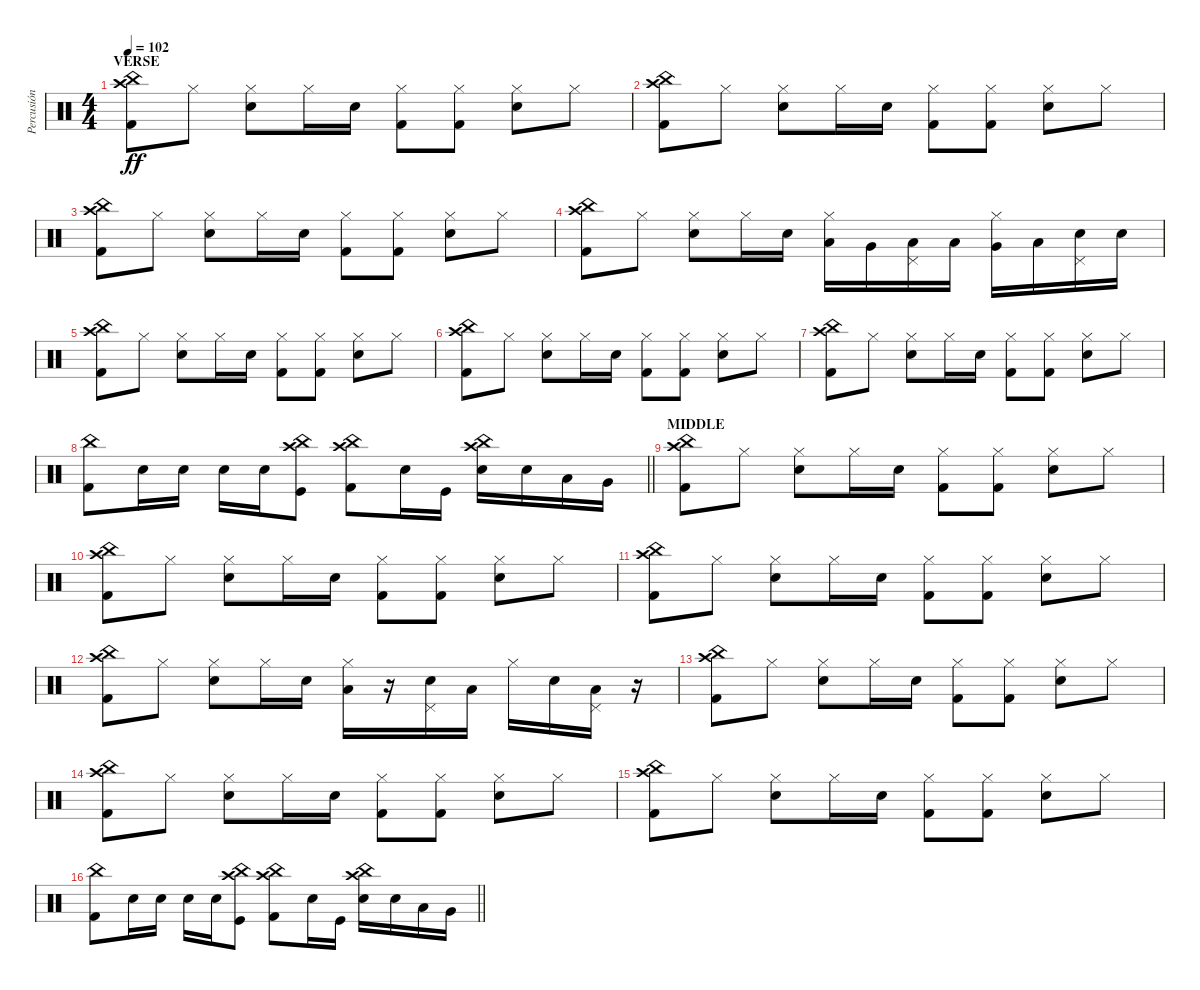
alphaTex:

\track ("Percusión" "Percusión") {instrument percussion}
\staff {score}
\articulation defaults
\ts (4 4)
\section ("" "VERSE")
\tempo 102
\clef neutral
\ks c
("Kick (hit) 2" "China (hit)" "Crash high (hit)").8{dy ff} "Hi-Hat (closed)".8 ("Electric Snare (hit)" "Hi-Hat (closed)").8 "Hi-Hat (closed)".16 "Electric Snare (hit)".16 ("Kick (hit) 2" "Hi-Hat (closed)").8 ("Kick (hit) 2" "Hi-Hat (closed)").8 ("Electric Snare (hit)" "Hi-Hat (closed)").8 "Hi-Hat (closed)".8 |
("Kick (hit) 2" "China (hit)" "Crash high (hit)").8 "Hi-Hat (closed)".8 ("Electric Snare (hit)" "Hi-Hat (closed)").8 "Hi-Hat (closed)".16 "Electric Snare (hit)".16 ("Kick (hit) 2" "Hi-Hat (closed)").8 ("Kick (hit) 2" "Hi-Hat (closed)").8 ("Electric Snare (hit)" "Hi-Hat (closed)").8 "Hi-Hat (closed)".8 |
("Kick (hit) 2" "China (hit)" "Crash high (hit)").8 "Hi-Hat (closed)".8 ("Electric Snare (hit)" "Hi-Hat (closed)").8 "Hi-Hat (closed)".16 "Electric Snare (hit)".16 ("Kick (hit) 2" "Hi-Hat (closed)").8 ("Kick (hit) 2" "Hi-Hat (closed)").8 ("Electric Snare (hit)" "Hi-Hat (closed)").8 "Hi-Hat (closed)".8 |
("Kick (hit) 2" "China (hit)" "Crash high (hit)").8 "Hi-Hat (closed)".8 ("Electric Snare (hit)" "Hi-Hat (closed)").8 "Hi-Hat (closed)".16 "Electric Snare (hit)".16 ("Low Tom (hit)" "Hi-Hat (closed)").16 "Very Low Tom (hit)".16 ("Low Floor Tom (hit)" "Pedal Hi-Hat (hit)").16 "Low Tom (hit)".16 ("Very Low Tom (hit)" "Hi-Hat (closed)").16 "Low Floor Tom (hit)".16 ("Electric Snare (hit)" "Pedal Hi-Hat (hit)").16 "Electric Snare (hit)".16 |
("Kick (hit) 2" "China (hit)" "Crash high (hit)").8 "Hi-Hat (closed)".8 ("Electric Snare (hit)" "Hi-Hat (closed)").8 "Hi-Hat (closed)".16 "Electric Snare (hit)".16 ("Kick (hit) 2" "Hi-Hat (closed)").8 ("Kick (hit) 2" "Hi-Hat (closed)").8 ("Electric Snare (hit)" "Hi-Hat (closed)").8 "Hi-Hat (closed)".8 |
("Kick (hit) 2" "China (hit)" "Crash high (hit)").8 "Hi-Hat (closed)".8 ("Electric Snare (hit)" "Hi-Hat (closed)").8 "Hi-Hat (closed)".16 "Electric Snare (hit)".16 ("Kick (hit) 2" "Hi-Hat (closed)").8 ("Kick (hit) 2" "Hi-Hat (closed)").8 ("Electric Snare (hit)" "Hi-Hat (closed)").8 "Hi-Hat (closed)".8 |
("Kick (hit) 2" "China (hit)" "Crash high (hit)").8 "Hi-Hat (closed)".8 ("Electric Snare (hit)" "Hi-Hat (closed)").8 "Hi-Hat (closed)".16 "Electric Snare (hit)".16 ("Kick (hit) 2" "Hi-Hat (closed)").8 ("Kick (hit) 2" "Hi-Hat (closed)").8 ("Electric Snare (hit)" "Hi-Hat (closed)").8 "Hi-Hat (closed)".8 |
\barLineRight lightlight
("Kick (hit) 2" "China (hit)").8 "Electric Snare (hit)".16 "Electric Snare (hit)".16 "Electric Snare (hit)".16 "Electric Snare (hit)".16 ("Kick (hit)" "China (hit)" "Crash high (hit)").8 ("Kick (hit) 2" "China (hit)" "Crash high (hit)").8 "Electric Snare (hit)".16 "Kick (hit)".16 ("Electric Snare (hit)" "China (hit)" "Crash high (hit)").16 "Electric Snare (hit)".16 "Low Floor Tom (hit)".16 "Very Low Tom (hit)".16 |
\section ("" "MIDDLE")
("Kick (hit) 2" "China (hit)" "Crash high (hit)").8 "Hi-Hat (closed)".8 ("Electric Snare (hit)" "Hi-Hat (closed)").8 "Hi-Hat (closed)".16 "Electric Snare (hit)".16 ("Kick (hit) 2" "Hi-Hat (closed)").8 ("Kick (hit) 2" "Hi-Hat (closed)").8 ("Electric Snare (hit)" "Hi-Hat (closed)").8 "Hi-Hat (closed)".8 |
("Kick (hit) 2" "China (hit)" "Crash high (hit)").8 "Hi-Hat (closed)".8 ("Electric Snare (hit)" "Hi-Hat (closed)").8 "Hi-Hat (closed)".16 "Electric Snare (hit)".16 ("Kick (hit) 2" "Hi-Hat (closed)").8 ("Kick (hit) 2" "Hi-Hat (closed)").8 ("Electric Snare (hit)" "Hi-Hat (closed)").8 "Hi-Hat (closed)".8 |
("Kick (hit) 2" "China (hit)" "Crash high (hit)").8 "Hi-Hat (closed)".8 ("Electric Snare (hit)" "Hi-Hat (closed)").8 "Hi-Hat (closed)".16 "Electric Snare (hit)".16 ("Kick (hit) 2" "Hi-Hat (closed)").8 ("Kick (hit) 2" "Hi-Hat (closed)").8 ("Electric Snare (hit)" "Hi-Hat (closed)").8 "Hi-Hat (closed)".8 |
("Kick (hit) 2" "China (hit)" "Crash high (hit)").8 "Hi-Hat (closed)".8 ("Electric Snare (hit)" "Hi-Hat (closed)").8 "Hi-Hat (closed)".16 "Electric Snare (hit)".16 ("Low Tom (hit)" "Hi-Hat (closed)").16 r.16 ("Electric Snare (hit)" "Pedal Hi-Hat (hit)").16 "Low Tom (hit)".16 "Hi-Hat (closed)".16 "Electric Snare (hit)".16 ("Low Tom (hit)" "Pedal Hi-Hat (hit)").16 r.16 |
("Kick (hit) 2" "China (hit)" "Crash high (hit)").8 "Hi-Hat (closed)".8 ("Electric Snare (hit)" "Hi-Hat (closed)").8 "Hi-Hat (closed)".16 "Electric Snare (hit)".16 ("Kick (hit) 2" "Hi-Hat (closed)").8 ("Kick (hit) 2" "Hi-Hat (closed)").8 ("Electric Snare (hit)" "Hi-Hat (closed)").8 "Hi-Hat (closed)".8 |
("Kick (hit) 2" "China (hit)" "Crash high (hit)").8 "Hi-Hat (closed)".8 ("Electric Snare (hit)" "Hi-Hat (closed)").8 "Hi-Hat (closed)".16 "Electric Snare (hit)".16 ("Kick (hit) 2" "Hi-Hat (closed)").8 ("Kick (hit) 2" "Hi-Hat (closed)").8 ("Electric Snare (hit)" "Hi-Hat (closed)").8 "Hi-Hat (closed)".8 |
("Kick (hit) 2" "China (hit)" "Crash high (hit)").8 "Hi-Hat (closed)".8 ("Electric Snare (hit)" "Hi-Hat (closed)").8 "Hi-Hat (closed)".16 "Electric Snare (hit)".16 ("Kick (hit) 2" "Hi-Hat (closed)").8 ("Kick (hit) 2" "Hi-Hat (closed)").8 ("Electric Snare (hit)" "Hi-Hat (closed)").8 "Hi-Hat (closed)".8 |
\barLineRight lightlight
("Kick (hit) 2" "China (hit)").8 "Electric Snare (hit)".16 "Electric Snare (hit)".16 "Electric Snare (hit)".16 "Electric Snare (hit)".16 ("Kick (hit)" "China (hit)" "Crash high (hit)").8 ("Kick (hit) 2" "China (hit)" "Crash high (hit)").8 "Electric Snare (hit)".16 "Kick (hit)".16 ("Electric Snare (hit)" "China (hit)" "Crash high (hit)").16 "Electric Snare (hit)".16 "Low Floor Tom (hit)".16 "Very Low Tom (hit)".16
